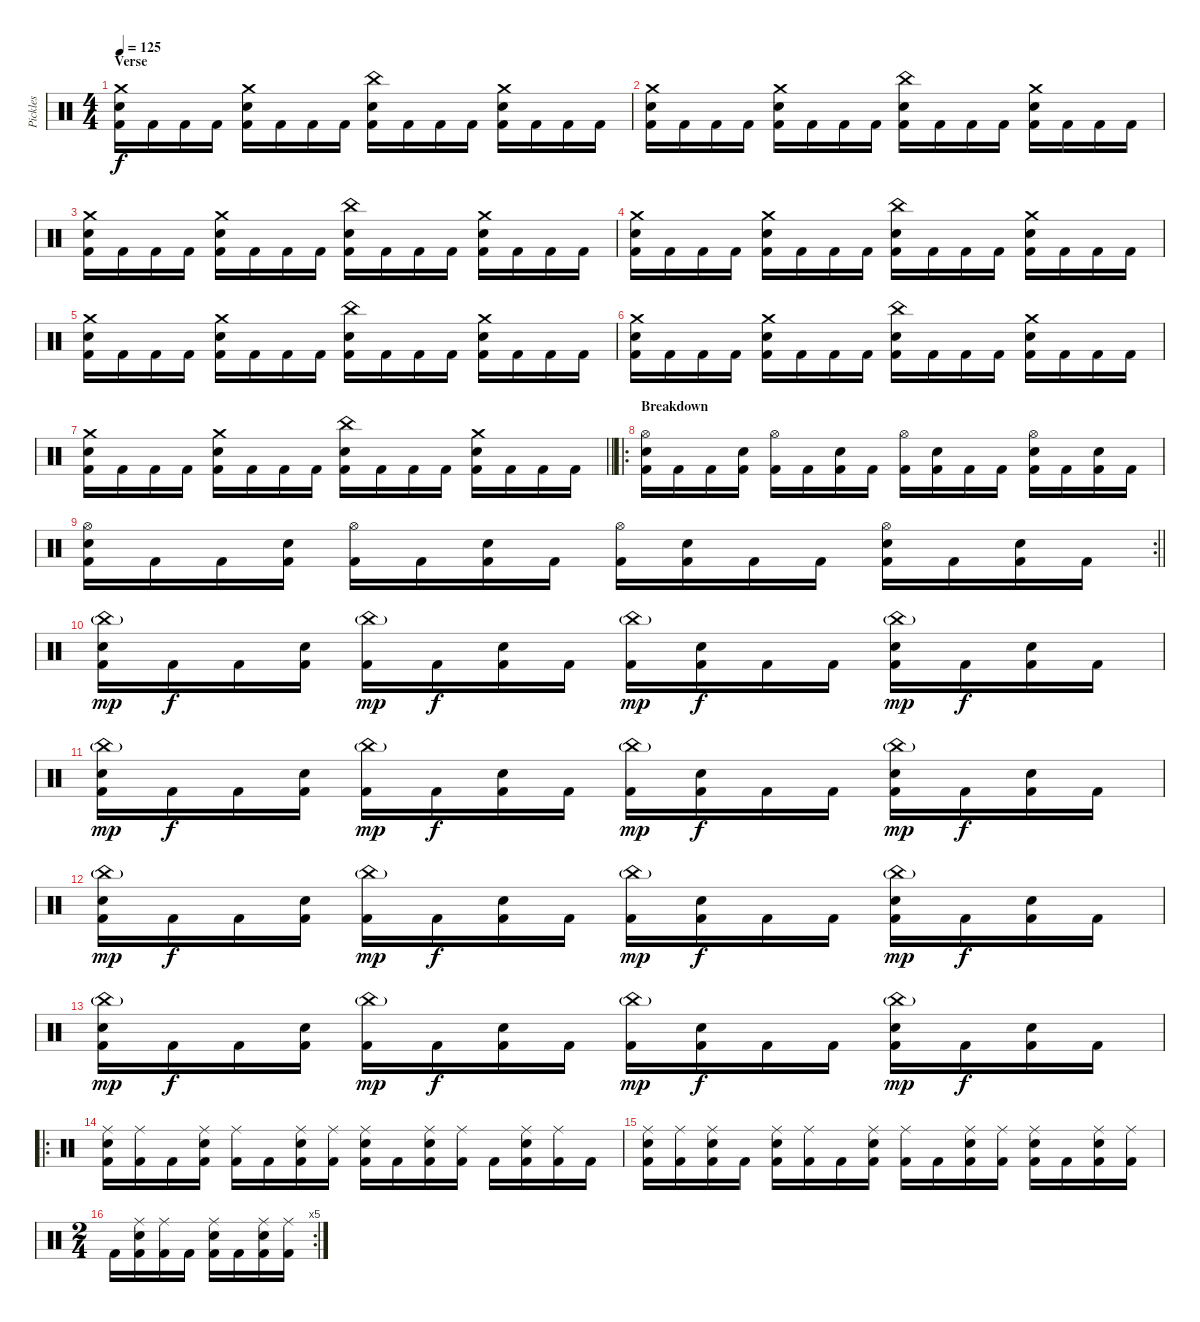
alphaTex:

\track ("Pickles" "Pickles") {instrument percussion}
\staff {score}
\articulation defaults
\ts (4 4)
\section ("" "Verse")
\tempo 125
\clef neutral
\ks c
("Crash medium (hit)" "Electric Snare (hit)" "Kick (hit) 2").16{dy f} "Kick (hit) 2".16 "Kick (hit) 2".16 "Kick (hit) 2".16 ("Crash medium (hit)" "Electric Snare (hit)" "Kick (hit) 2").16 "Kick (hit) 2".16 "Kick (hit) 2".16 "Kick (hit) 2".16 ("China (hit)" "Electric Snare (hit)" "Kick (hit) 2").16 "Kick (hit) 2".16 "Kick (hit) 2".16 "Kick (hit) 2".16 ("Crash medium (hit)" "Electric Snare (hit)" "Kick (hit) 2").16 "Kick (hit) 2".16 "Kick (hit) 2".16 "Kick (hit) 2".16 |
("Crash medium (hit)" "Electric Snare (hit)" "Kick (hit) 2").16 "Kick (hit) 2".16 "Kick (hit) 2".16 "Kick (hit) 2".16 ("Crash medium (hit)" "Electric Snare (hit)" "Kick (hit) 2").16 "Kick (hit) 2".16 "Kick (hit) 2".16 "Kick (hit) 2".16 ("China (hit)" "Electric Snare (hit)" "Kick (hit) 2").16 "Kick (hit) 2".16 "Kick (hit) 2".16 "Kick (hit) 2".16 ("Crash medium (hit)" "Electric Snare (hit)" "Kick (hit) 2").16 "Kick (hit) 2".16 "Kick (hit) 2".16 "Kick (hit) 2".16 |
("Crash medium (hit)" "Electric Snare (hit)" "Kick (hit) 2").16 "Kick (hit) 2".16 "Kick (hit) 2".16 "Kick (hit) 2".16 ("Crash medium (hit)" "Electric Snare (hit)" "Kick (hit) 2").16 "Kick (hit) 2".16 "Kick (hit) 2".16 "Kick (hit) 2".16 ("China (hit)" "Electric Snare (hit)" "Kick (hit) 2").16 "Kick (hit) 2".16 "Kick (hit) 2".16 "Kick (hit) 2".16 ("Crash medium (hit)" "Electric Snare (hit)" "Kick (hit) 2").16 "Kick (hit) 2".16 "Kick (hit) 2".16 "Kick (hit) 2".16 |
("Crash medium (hit)" "Electric Snare (hit)" "Kick (hit) 2").16 "Kick (hit) 2".16 "Kick (hit) 2".16 "Kick (hit) 2".16 ("Crash medium (hit)" "Electric Snare (hit)" "Kick (hit) 2").16 "Kick (hit) 2".16 "Kick (hit) 2".16 "Kick (hit) 2".16 ("China (hit)" "Electric Snare (hit)" "Kick (hit) 2").16 "Kick (hit) 2".16 "Kick (hit) 2".16 "Kick (hit) 2".16 ("Crash medium (hit)" "Electric Snare (hit)" "Kick (hit) 2").16 "Kick (hit) 2".16 "Kick (hit) 2".16 "Kick (hit) 2".16 |
("Crash medium (hit)" "Electric Snare (hit)" "Kick (hit) 2").16 "Kick (hit) 2".16 "Kick (hit) 2".16 "Kick (hit) 2".16 ("Crash medium (hit)" "Electric Snare (hit)" "Kick (hit) 2").16 "Kick (hit) 2".16 "Kick (hit) 2".16 "Kick (hit) 2".16 ("China (hit)" "Electric Snare (hit)" "Kick (hit) 2").16 "Kick (hit) 2".16 "Kick (hit) 2".16 "Kick (hit) 2".16 ("Crash medium (hit)" "Electric Snare (hit)" "Kick (hit) 2").16 "Kick (hit) 2".16 "Kick (hit) 2".16 "Kick (hit) 2".16 |
("Crash medium (hit)" "Electric Snare (hit)" "Kick (hit) 2").16 "Kick (hit) 2".16 "Kick (hit) 2".16 "Kick (hit) 2".16 ("Crash medium (hit)" "Electric Snare (hit)" "Kick (hit) 2").16 "Kick (hit) 2".16 "Kick (hit) 2".16 "Kick (hit) 2".16 ("China (hit)" "Electric Snare (hit)" "Kick (hit) 2").16 "Kick (hit) 2".16 "Kick (hit) 2".16 "Kick (hit) 2".16 ("Crash medium (hit)" "Electric Snare (hit)" "Kick (hit) 2").16 "Kick (hit) 2".16 "Kick (hit) 2".16 "Kick (hit) 2".16 |
\barLineRight lightlight
("Crash medium (hit)" "Electric Snare (hit)" "Kick (hit) 2").16 "Kick (hit) 2".16 "Kick (hit) 2".16 "Kick (hit) 2".16 ("Crash medium (hit)" "Electric Snare (hit)" "Kick (hit) 2").16 "Kick (hit) 2".16 "Kick (hit) 2".16 "Kick (hit) 2".16 ("China (hit)" "Electric Snare (hit)" "Kick (hit) 2").16 "Kick (hit) 2".16 "Kick (hit) 2".16 "Kick (hit) 2".16 ("Crash medium (hit)" "Electric Snare (hit)" "Kick (hit) 2").16 "Kick (hit) 2".16 "Kick (hit) 2".16 "Kick (hit) 2".16 |
\ro
\section ("" "Breakdown")
("Hi-Hat (open)" "Electric Snare (hit)" "Kick (hit) 2").16 "Kick (hit) 2".16 "Kick (hit) 2".16 ("Electric Snare (hit)" "Kick (hit) 2").16 ("Hi-Hat (open)" "Kick (hit) 2").16 "Kick (hit) 2".16 ("Electric Snare (hit)" "Kick (hit) 2").16 "Kick (hit) 2".16 ("Hi-Hat (open)" "Kick (hit) 2").16 ("Electric Snare (hit)" "Kick (hit) 2").16 "Kick (hit) 2".16 "Kick (hit) 2".16 ("Hi-Hat (open)" "Electric Snare (hit)" "Kick (hit) 2").16 "Kick (hit) 2".16 ("Electric Snare (hit)" "Kick (hit) 2").16 "Kick (hit) 2".16 |
\rc 2
\barLineRight lightlight
("Hi-Hat (open)" "Electric Snare (hit)" "Kick (hit) 2").16 "Kick (hit) 2".16 "Kick (hit) 2".16 ("Electric Snare (hit)" "Kick (hit) 2").16 ("Hi-Hat (open)" "Kick (hit) 2").16 "Kick (hit) 2".16 ("Electric Snare (hit)" "Kick (hit) 2").16 "Kick (hit) 2".16 ("Hi-Hat (open)" "Kick (hit) 2").16 ("Electric Snare (hit)" "Kick (hit) 2").16 "Kick (hit) 2".16 "Kick (hit) 2".16 ("Hi-Hat (open)" "Electric Snare (hit)" "Kick (hit) 2").16 "Kick (hit) 2".16 ("Electric Snare (hit)" "Kick (hit) 2").16 "Kick (hit) 2".16 |
("China (hit)"{g} "Electric Snare (hit)" "Kick (hit) 2").16{dy mp} "Kick (hit) 2".16{dy f} "Kick (hit) 2".16 ("Electric Snare (hit)" "Kick (hit) 2").16 ("China (hit)"{g} "Kick (hit) 2").16{dy mp} "Kick (hit) 2".16{dy f} ("Electric Snare (hit)" "Kick (hit) 2").16 "Kick (hit) 2".16 ("China (hit)"{g} "Kick (hit) 2").16{dy mp} ("Electric Snare (hit)" "Kick (hit) 2").16{dy f} "Kick (hit) 2".16 "Kick (hit) 2".16 ("China (hit)"{g} "Electric Snare (hit)" "Kick (hit) 2").16{dy mp} "Kick (hit) 2".16{dy f} ("Electric Snare (hit)" "Kick (hit) 2").16 "Kick (hit) 2".16 |
("China (hit)"{g} "Electric Snare (hit)" "Kick (hit) 2").16{dy mp} "Kick (hit) 2".16{dy f} "Kick (hit) 2".16 ("Electric Snare (hit)" "Kick (hit) 2").16 ("China (hit)"{g} "Kick (hit) 2").16{dy mp} "Kick (hit) 2".16{dy f} ("Electric Snare (hit)" "Kick (hit) 2").16 "Kick (hit) 2".16 ("China (hit)"{g} "Kick (hit) 2").16{dy mp} ("Electric Snare (hit)" "Kick (hit) 2").16{dy f} "Kick (hit) 2".16 "Kick (hit) 2".16 ("China (hit)"{g} "Electric Snare (hit)" "Kick (hit) 2").16{dy mp} "Kick (hit) 2".16{dy f} ("Electric Snare (hit)" "Kick (hit) 2").16 "Kick (hit) 2".16 |
("China (hit)"{g} "Electric Snare (hit)" "Kick (hit) 2").16{dy mp} "Kick (hit) 2".16{dy f} "Kick (hit) 2".16 ("Electric Snare (hit)" "Kick (hit) 2").16 ("China (hit)"{g} "Kick (hit) 2").16{dy mp} "Kick (hit) 2".16{dy f} ("Electric Snare (hit)" "Kick (hit) 2").16 "Kick (hit) 2".16 ("China (hit)"{g} "Kick (hit) 2").16{dy mp} ("Electric Snare (hit)" "Kick (hit) 2").16{dy f} "Kick (hit) 2".16 "Kick (hit) 2".16 ("China (hit)"{g} "Electric Snare (hit)" "Kick (hit) 2").16{dy mp} "Kick (hit) 2".16{dy f} ("Electric Snare (hit)" "Kick (hit) 2").16 "Kick (hit) 2".16 |
("China (hit)"{g} "Electric Snare (hit)" "Kick (hit) 2").16{dy mp} "Kick (hit) 2".16{dy f} "Kick (hit) 2".16 ("Electric Snare (hit)" "Kick (hit) 2").16 ("China (hit)"{g} "Kick (hit) 2").16{dy mp} "Kick (hit) 2".16{dy f} ("Electric Snare (hit)" "Kick (hit) 2").16 "Kick (hit) 2".16 ("China (hit)"{g} "Kick (hit) 2").16{dy mp} ("Electric Snare (hit)" "Kick (hit) 2").16{dy f} "Kick (hit) 2".16 "Kick (hit) 2".16 ("China (hit)"{g} "Electric Snare (hit)" "Kick (hit) 2").16{dy mp} "Kick (hit) 2".16{dy f} ("Electric Snare (hit)" "Kick (hit) 2").16 "Kick (hit) 2".16 |
\ro
("Ride (middle)" "Electric Snare (hit)" "Kick (hit) 2").16 ("Ride (middle)" "Kick (hit) 2").16 "Kick (hit) 2".16 ("Ride (middle)" "Electric Snare (hit)" "Kick (hit) 2").16 ("Ride (middle)" "Kick (hit) 2").16 "Kick (hit) 2".16 ("Ride (middle)" "Electric Snare (hit)" "Kick (hit) 2").16 ("Ride (middle)" "Kick (hit) 2").16 ("Ride (middle)" "Electric Snare (hit)" "Kick (hit) 2").16 "Kick (hit) 2".16 ("Ride (middle)" "Electric Snare (hit)" "Kick (hit) 2").16 ("Ride (middle)" "Kick (hit) 2").16 "Kick (hit) 2".16 ("Ride (middle)" "Electric Snare (hit)" "Kick (hit) 2").16 ("Ride (middle)" "Kick (hit) 2").16 "Kick (hit) 2".16 |
("Ride (middle)" "Electric Snare (hit)" "Kick (hit) 2").16 ("Ride (middle)" "Kick (hit) 2").16 ("Ride (middle)" "Electric Snare (hit)" "Kick (hit) 2").16 "Kick (hit) 2".16 ("Ride (middle)" "Electric Snare (hit)" "Kick (hit) 2").16 ("Ride (middle)" "Kick (hit) 2").16 "Kick (hit) 2".16 ("Ride (middle)" "Electric Snare (hit)" "Kick (hit) 2").16 ("Ride (middle)" "Kick (hit) 2").16 "Kick (hit) 2".16 ("Ride (middle)" "Electric Snare (hit)" "Kick (hit) 2").16 ("Ride (middle)" "Kick (hit) 2").16 ("Ride (middle)" "Electric Snare (hit)" "Kick (hit) 2").16 "Kick (hit) 2".16 ("Ride (middle)" "Electric Snare (hit)" "Kick (hit) 2").16 ("Ride (middle)" "Kick (hit) 2").16 |
\rc 5
\ts (2 4)
"Kick (hit) 2".16 ("Ride (middle)" "Electric Snare (hit)" "Kick (hit) 2").16 ("Ride (middle)" "Kick (hit) 2").16 "Kick (hit) 2".16 ("Ride (middle)" "Electric Snare (hit)" "Kick (hit) 2").16 "Kick (hit) 2".16 ("Ride (middle)" "Electric Snare (hit)" "Kick (hit) 2").16 ("Ride (middle)" "Kick (hit) 2").16
